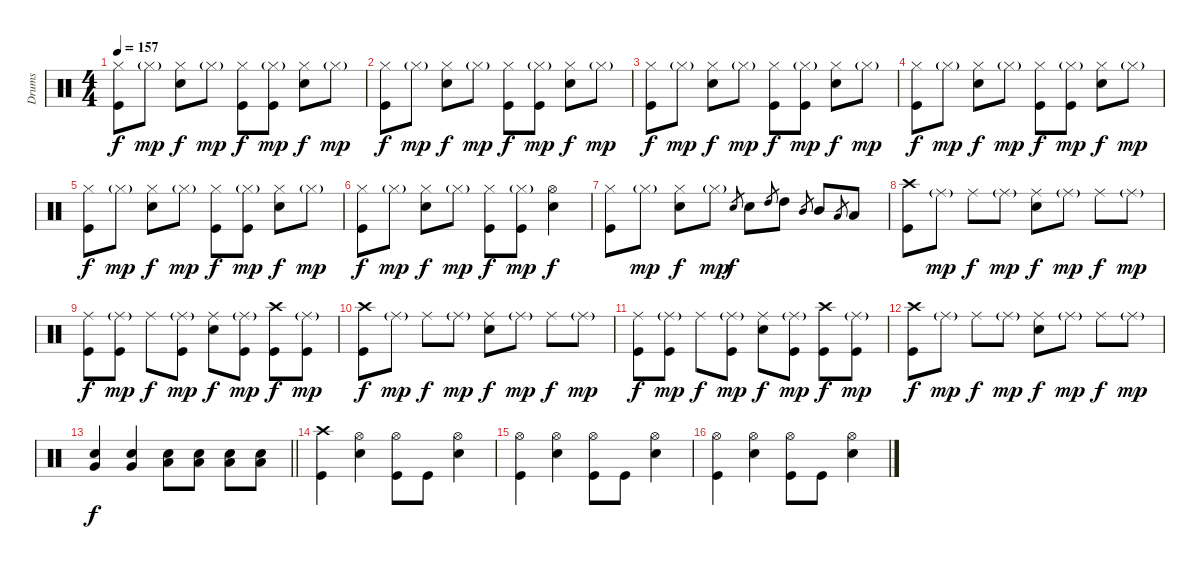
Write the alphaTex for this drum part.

\track ("Drums" "Drums") {instrument percussion}
\staff {score}
\articulation defaults
\ts (4 4)
\tempo 157
\clef neutral
\ks c
("Hi-Hat (closed)" "Kick (hit)").8{dy f} "Hi-Hat (closed)"{g}.8{dy mp} ("Hi-Hat (closed)" "Snare (hit) 2").8{dy f} "Hi-Hat (closed)"{g}.8{dy mp} ("Hi-Hat (closed)" "Kick (hit)").8{dy f} ("Hi-Hat (closed)"{g} "Kick (hit)").8{dy mp} ("Hi-Hat (closed)" "Snare (hit) 2").8{dy f} "Hi-Hat (closed)"{g}.8{dy mp} |
("Hi-Hat (closed)" "Kick (hit)").8{dy f} "Hi-Hat (closed)"{g}.8{dy mp} ("Hi-Hat (closed)" "Snare (hit) 2").8{dy f} "Hi-Hat (closed)"{g}.8{dy mp} ("Hi-Hat (closed)" "Kick (hit)").8{dy f} ("Hi-Hat (closed)"{g} "Kick (hit)").8{dy mp} ("Hi-Hat (closed)" "Snare (hit) 2").8{dy f} "Hi-Hat (closed)"{g}.8{dy mp} |
("Hi-Hat (closed)" "Kick (hit)").8{dy f} "Hi-Hat (closed)"{g}.8{dy mp} ("Hi-Hat (closed)" "Snare (hit) 2").8{dy f} "Hi-Hat (closed)"{g}.8{dy mp} ("Hi-Hat (closed)" "Kick (hit)").8{dy f} ("Hi-Hat (closed)"{g} "Kick (hit)").8{dy mp} ("Hi-Hat (closed)" "Snare (hit) 2").8{dy f} "Hi-Hat (closed)"{g}.8{dy mp} |
("Hi-Hat (closed)" "Kick (hit)").8{dy f} "Hi-Hat (closed)"{g}.8{dy mp} ("Hi-Hat (closed)" "Snare (hit) 2").8{dy f} "Hi-Hat (closed)"{g}.8{dy mp} ("Hi-Hat (closed)" "Kick (hit)").8{dy f} ("Hi-Hat (closed)"{g} "Kick (hit)").8{dy mp} ("Hi-Hat (closed)" "Snare (hit) 2").8{dy f} "Hi-Hat (closed)"{g}.8{dy mp} |
("Hi-Hat (closed)" "Kick (hit)").8{dy f} "Hi-Hat (closed)"{g}.8{dy mp} ("Hi-Hat (closed)" "Snare (hit) 2").8{dy f} "Hi-Hat (closed)"{g}.8{dy mp} ("Hi-Hat (closed)" "Kick (hit)").8{dy f} ("Hi-Hat (closed)"{g} "Kick (hit)").8{dy mp} ("Hi-Hat (closed)" "Snare (hit) 2").8{dy f} "Hi-Hat (closed)"{g}.8{dy mp} |
("Hi-Hat (closed)" "Kick (hit)").8{dy f} "Hi-Hat (closed)"{g}.8{dy mp} ("Hi-Hat (closed)" "Snare (hit) 2").8{dy f} "Hi-Hat (closed)"{g}.8{dy mp} ("Hi-Hat (closed)" "Kick (hit)").8{dy f} ("Hi-Hat (closed)"{g} "Kick (hit)").8{dy mp} ("Hi-Hat (open)" "Snare (hit) 2").4{dy f} |
("Hi-Hat (closed)" "Kick (hit)").8 "Hi-Hat (closed)"{g}.8{dy mp} ("Hi-Hat (closed)" "Snare (hit) 2").8{dy f} "Hi-Hat (closed)"{g}.8{dy mp} "Snare (hit) 2".8{gr dy f} "Snare (hit) 2".8 "High Tom (hit)".8{gr} "High Tom (hit)".8 "Mid Tom (hit)".8{gr} "Mid Tom (hit)".8 "Low Tom (hit)".8{gr} "Low Tom (hit)".8 |
("Crash high (hit)" "Kick (hit)").8 "Ride (middle)"{g}.8{dy mp} "Ride (middle)".8{dy f} "Ride (middle)"{g}.8{dy mp} ("Ride (middle)" "Snare (hit) 2").8{dy f} "Ride (middle)"{g}.8{dy mp} "Ride (middle)".8{dy f} "Ride (middle)"{g}.8{dy mp} |
("Ride (middle)" "Kick (hit)").8{dy f} ("Ride (middle)"{g} "Kick (hit)").8{dy mp} "Ride (middle)".8{dy f} ("Kick (hit)" "Ride (middle)"{g}).8{dy mp} ("Ride (middle)" "Snare (hit) 2").8{dy f} ("Ride (middle)"{g} "Kick (hit)").8{dy mp} ("Crash high (hit)" "Kick (hit)").8{dy f} ("Ride (middle)"{g} "Kick (hit)").8{dy mp} |
("Crash high (hit)" "Kick (hit)").8{dy f} "Ride (middle)"{g}.8{dy mp} "Ride (middle)".8{dy f} "Ride (middle)"{g}.8{dy mp} ("Ride (middle)" "Snare (hit) 2").8{dy f} "Ride (middle)"{g}.8{dy mp} "Ride (middle)".8{dy f} "Ride (middle)"{g}.8{dy mp} |
("Ride (middle)" "Kick (hit)").8{dy f} ("Ride (middle)"{g} "Kick (hit)").8{dy mp} "Ride (middle)".8{dy f} ("Kick (hit)" "Ride (middle)"{g}).8{dy mp} ("Ride (middle)" "Snare (hit) 2").8{dy f} ("Ride (middle)"{g} "Kick (hit)").8{dy mp} ("Crash high (hit)" "Kick (hit)").8{dy f} ("Ride (middle)"{g} "Kick (hit)").8{dy mp} |
("Crash high (hit)" "Kick (hit)").8{dy f} "Ride (middle)"{g}.8{dy mp} "Ride (middle)".8{dy f} "Ride (middle)"{g}.8{dy mp} ("Ride (middle)" "Snare (hit) 2").8{dy f} "Ride (middle)"{g}.8{dy mp} "Ride (middle)".8{dy f} "Ride (middle)"{g}.8{dy mp} |
\barLineRight lightlight
("Snare (hit) 2" "Very Low Tom (hit)").4{dy f} ("Snare (hit) 2" "Very Low Tom (hit)").4 ("Snare (hit) 2" "Low Tom (hit)").8 ("Snare (hit) 2" "Low Tom (hit)").8 ("Snare (hit) 2" "Low Tom (hit)").8 ("Snare (hit) 2" "Low Tom (hit)").8 |
("Crash high (hit)" "Kick (hit)").4 ("Hi-Hat (open)" "Snare (hit) 2").4 ("Hi-Hat (open)" "Kick (hit)").8 "Kick (hit)".8 ("Hi-Hat (open)" "Snare (hit) 2").4 |
("Hi-Hat (open)" "Kick (hit)").4 ("Hi-Hat (open)" "Snare (hit) 2").4 ("Hi-Hat (open)" "Kick (hit)").8 "Kick (hit)".8 ("Hi-Hat (open)" "Snare (hit) 2").4 |
("Hi-Hat (open)" "Kick (hit)").4 ("Hi-Hat (open)" "Snare (hit) 2").4 ("Hi-Hat (open)" "Kick (hit)").8 "Kick (hit)".8 ("Hi-Hat (open)" "Snare (hit) 2").4
